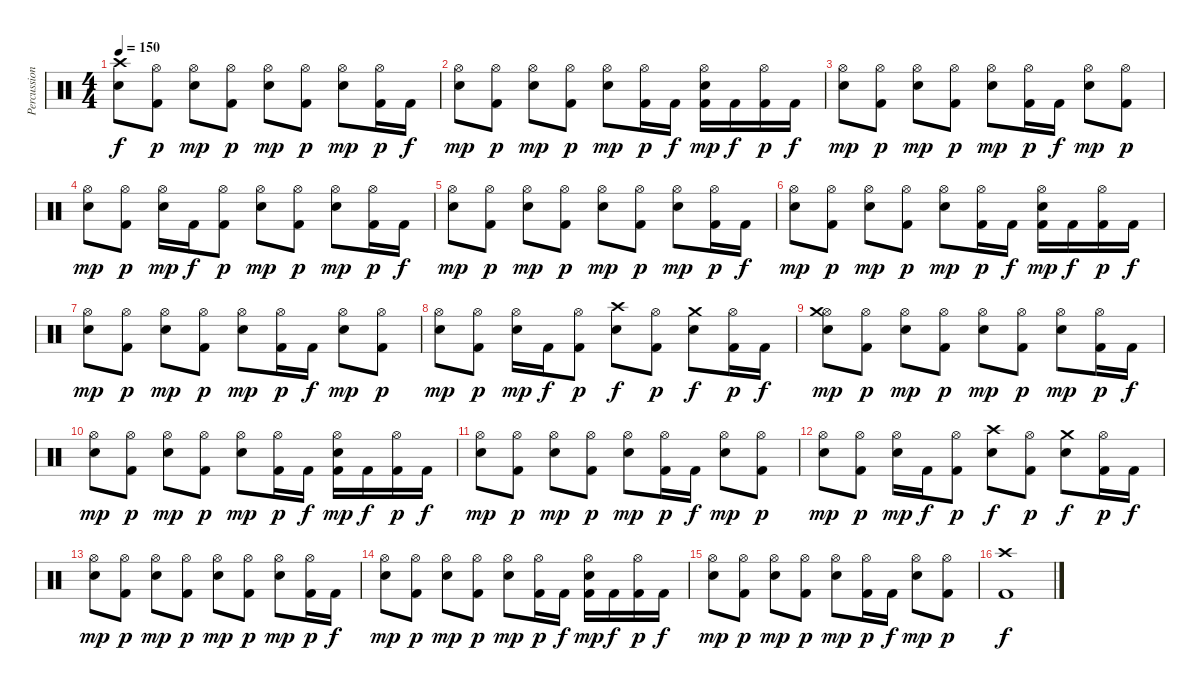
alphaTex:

\track ("Percussion" "Percussion") {instrument percussion}
\staff {score}
\articulation defaults
\ts (4 4)
\tempo 150
\clef neutral
\ks c
("Crash high (hit)" "Snare (hit) 2").8{dy f} ("Hi-Hat (open)" "Kick (hit) 2").8{dy p} ("Hi-Hat (open)" "Snare (hit) 2").8{dy mp} ("Hi-Hat (open)" "Kick (hit) 2").8{dy p} ("Hi-Hat (open)" "Snare (hit) 2").8{dy mp} ("Hi-Hat (open)" "Kick (hit) 2").8{dy p} ("Hi-Hat (open)" "Snare (hit) 2").8{dy mp} ("Hi-Hat (open)" "Kick (hit) 2").16{dy p} "Kick (hit) 2".16{dy f} |
("Hi-Hat (open)" "Snare (hit) 2").8{dy mp} ("Hi-Hat (open)" "Kick (hit) 2").8{dy p} ("Hi-Hat (open)" "Snare (hit) 2").8{dy mp} ("Hi-Hat (open)" "Kick (hit) 2").8{dy p} ("Hi-Hat (open)" "Snare (hit) 2").8{dy mp} ("Hi-Hat (open)" "Kick (hit) 2").16{dy p} "Kick (hit) 2".16{dy f} ("Hi-Hat (open)" "Kick (hit) 2" "Snare (hit) 2").16{dy mp} "Kick (hit) 2".16{dy f} ("Hi-Hat (open)" "Kick (hit) 2").16{dy p} "Kick (hit) 2".16{dy f} |
("Hi-Hat (open)" "Snare (hit) 2").8{dy mp} ("Hi-Hat (open)" "Kick (hit) 2").8{dy p} ("Hi-Hat (open)" "Snare (hit) 2").8{dy mp} ("Hi-Hat (open)" "Kick (hit) 2").8{dy p} ("Hi-Hat (open)" "Snare (hit) 2").8{dy mp} ("Hi-Hat (open)" "Kick (hit) 2").16{dy p} "Kick (hit) 2".16{dy f} ("Hi-Hat (open)" "Snare (hit) 2").8{dy mp} ("Hi-Hat (open)" "Kick (hit) 2").8{dy p} |
("Hi-Hat (open)" "Snare (hit) 2").8{dy mp} ("Hi-Hat (open)" "Kick (hit) 2").8{dy p} ("Hi-Hat (open)" "Snare (hit) 2").16{dy mp} "Kick (hit) 2".16{dy f} ("Hi-Hat (open)" "Kick (hit) 2").8{dy p} ("Hi-Hat (open)" "Snare (hit) 2").8{dy mp} ("Hi-Hat (open)" "Kick (hit) 2").8{dy p} ("Hi-Hat (open)" "Snare (hit) 2").8{dy mp} ("Hi-Hat (open)" "Kick (hit) 2").16{dy p} "Kick (hit) 2".16{dy f} |
("Hi-Hat (open)" "Snare (hit) 2").8{dy mp} ("Hi-Hat (open)" "Kick (hit) 2").8{dy p} ("Hi-Hat (open)" "Snare (hit) 2").8{dy mp} ("Hi-Hat (open)" "Kick (hit) 2").8{dy p} ("Hi-Hat (open)" "Snare (hit) 2").8{dy mp} ("Hi-Hat (open)" "Kick (hit) 2").8{dy p} ("Hi-Hat (open)" "Snare (hit) 2").8{dy mp} ("Hi-Hat (open)" "Kick (hit) 2").16{dy p} "Kick (hit) 2".16{dy f} |
("Hi-Hat (open)" "Snare (hit) 2").8{dy mp} ("Hi-Hat (open)" "Kick (hit) 2").8{dy p} ("Hi-Hat (open)" "Snare (hit) 2").8{dy mp} ("Hi-Hat (open)" "Kick (hit) 2").8{dy p} ("Hi-Hat (open)" "Snare (hit) 2").8{dy mp} ("Hi-Hat (open)" "Kick (hit) 2").16{dy p} "Kick (hit) 2".16{dy f} ("Hi-Hat (open)" "Kick (hit) 2" "Snare (hit) 2").16{dy mp} "Kick (hit) 2".16{dy f} ("Hi-Hat (open)" "Kick (hit) 2").16{dy p} "Kick (hit) 2".16{dy f} |
("Hi-Hat (open)" "Snare (hit) 2").8{dy mp} ("Hi-Hat (open)" "Kick (hit) 2").8{dy p} ("Hi-Hat (open)" "Snare (hit) 2").8{dy mp} ("Hi-Hat (open)" "Kick (hit) 2").8{dy p} ("Hi-Hat (open)" "Snare (hit) 2").8{dy mp} ("Hi-Hat (open)" "Kick (hit) 2").16{dy p} "Kick (hit) 2".16{dy f} ("Hi-Hat (open)" "Snare (hit) 2").8{dy mp} ("Hi-Hat (open)" "Kick (hit) 2").8{dy p} |
("Hi-Hat (open)" "Snare (hit) 2").8{dy mp} ("Hi-Hat (open)" "Kick (hit) 2").8{dy p} ("Hi-Hat (open)" "Snare (hit) 2").16{dy mp} "Kick (hit) 2".16{dy f} ("Hi-Hat (open)" "Kick (hit) 2").8{dy p} ("Crash high (hit)" "Snare (hit) 2").8{dy f} ("Hi-Hat (open)" "Kick (hit) 2").8{dy p} ("Crash medium (hit)" "Snare (hit) 2").8{dy f} ("Hi-Hat (open)" "Kick (hit) 2").16{dy p} "Kick (hit) 2".16{dy f} |
("Hi-Hat (open)" "Crash medium (hit)" "Snare (hit) 2").8{dy mp} ("Hi-Hat (open)" "Kick (hit) 2").8{dy p} ("Hi-Hat (open)" "Snare (hit) 2").8{dy mp} ("Hi-Hat (open)" "Kick (hit) 2").8{dy p} ("Hi-Hat (open)" "Snare (hit) 2").8{dy mp} ("Hi-Hat (open)" "Kick (hit) 2").8{dy p} ("Hi-Hat (open)" "Snare (hit) 2").8{dy mp} ("Hi-Hat (open)" "Kick (hit) 2").16{dy p} "Kick (hit) 2".16{dy f} |
("Hi-Hat (open)" "Snare (hit) 2").8{dy mp} ("Hi-Hat (open)" "Kick (hit) 2").8{dy p} ("Hi-Hat (open)" "Snare (hit) 2").8{dy mp} ("Hi-Hat (open)" "Kick (hit) 2").8{dy p} ("Hi-Hat (open)" "Snare (hit) 2").8{dy mp} ("Hi-Hat (open)" "Kick (hit) 2").16{dy p} "Kick (hit) 2".16{dy f} ("Hi-Hat (open)" "Kick (hit) 2" "Snare (hit) 2").16{dy mp} "Kick (hit) 2".16{dy f} ("Hi-Hat (open)" "Kick (hit) 2").16{dy p} "Kick (hit) 2".16{dy f} |
("Hi-Hat (open)" "Snare (hit) 2").8{dy mp} ("Hi-Hat (open)" "Kick (hit) 2").8{dy p} ("Hi-Hat (open)" "Snare (hit) 2").8{dy mp} ("Hi-Hat (open)" "Kick (hit) 2").8{dy p} ("Hi-Hat (open)" "Snare (hit) 2").8{dy mp} ("Hi-Hat (open)" "Kick (hit) 2").16{dy p} "Kick (hit) 2".16{dy f} ("Hi-Hat (open)" "Snare (hit) 2").8{dy mp} ("Hi-Hat (open)" "Kick (hit) 2").8{dy p} |
("Hi-Hat (open)" "Snare (hit) 2").8{dy mp} ("Hi-Hat (open)" "Kick (hit) 2").8{dy p} ("Hi-Hat (open)" "Snare (hit) 2").16{dy mp} "Kick (hit) 2".16{dy f} ("Hi-Hat (open)" "Kick (hit) 2").8{dy p} ("Crash high (hit)" "Snare (hit) 2").8{dy f} ("Hi-Hat (open)" "Kick (hit) 2").8{dy p} ("Crash medium (hit)" "Snare (hit) 2").8{dy f} ("Hi-Hat (open)" "Kick (hit) 2").16{dy p} "Kick (hit) 2".16{dy f} |
("Hi-Hat (open)" "Snare (hit) 2").8{dy mp} ("Hi-Hat (open)" "Kick (hit) 2").8{dy p} ("Hi-Hat (open)" "Snare (hit) 2").8{dy mp} ("Hi-Hat (open)" "Kick (hit) 2").8{dy p} ("Hi-Hat (open)" "Snare (hit) 2").8{dy mp} ("Hi-Hat (open)" "Kick (hit) 2").8{dy p} ("Hi-Hat (open)" "Snare (hit) 2").8{dy mp} ("Hi-Hat (open)" "Kick (hit) 2").16{dy p} "Kick (hit) 2".16{dy f} |
("Hi-Hat (open)" "Snare (hit) 2").8{dy mp} ("Hi-Hat (open)" "Kick (hit) 2").8{dy p} ("Hi-Hat (open)" "Snare (hit) 2").8{dy mp} ("Hi-Hat (open)" "Kick (hit) 2").8{dy p} ("Hi-Hat (open)" "Snare (hit) 2").8{dy mp} ("Hi-Hat (open)" "Kick (hit) 2").16{dy p} "Kick (hit) 2".16{dy f} ("Hi-Hat (open)" "Kick (hit) 2" "Snare (hit) 2").16{dy mp} "Kick (hit) 2".16{dy f} ("Hi-Hat (open)" "Kick (hit) 2").16{dy p} "Kick (hit) 2".16{dy f} |
("Hi-Hat (open)" "Snare (hit) 2").8{dy mp} ("Hi-Hat (open)" "Kick (hit) 2").8{dy p} ("Hi-Hat (open)" "Snare (hit) 2").8{dy mp} ("Hi-Hat (open)" "Kick (hit) 2").8{dy p} ("Hi-Hat (open)" "Snare (hit) 2").8{dy mp} ("Hi-Hat (open)" "Kick (hit) 2").16{dy p} "Kick (hit) 2".16{dy f} ("Hi-Hat (open)" "Snare (hit) 2").8{dy mp} ("Hi-Hat (open)" "Kick (hit) 2").8{dy p} |
("Crash high (hit)" "Kick (hit) 2").1{dy f}
